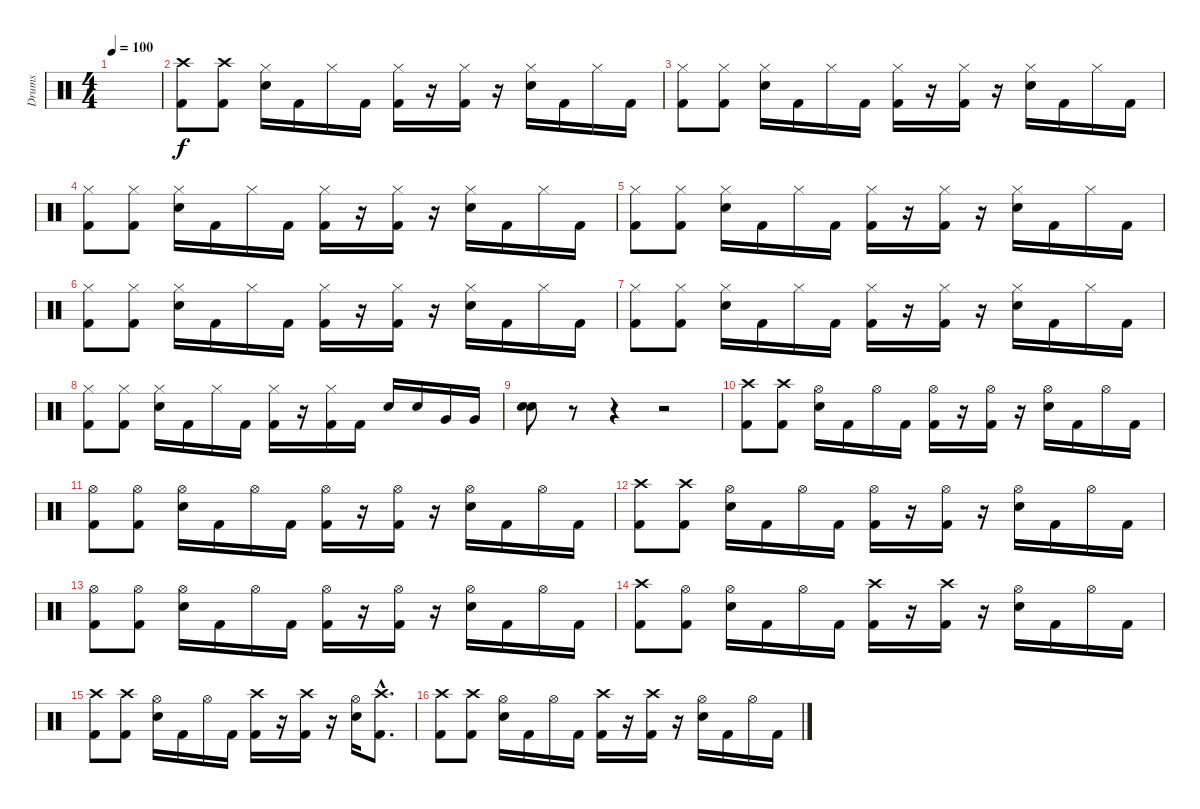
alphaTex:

\track ("Drums" "Drums") {instrument percussion}
\staff {score}
\articulation defaults
\ts (4 4)
\tempo 100
\clef neutral
\ks c
|
("Crash high (hit)" "Kick (hit) 2").8 ("Crash high (hit)" "Kick (hit) 2").8 ("Hi-Hat (closed)" "Snare (hit) 2").16 "Kick (hit) 2".16 "Hi-Hat (closed)".16 "Kick (hit) 2".16 ("Hi-Hat (closed)" "Kick (hit) 2").16 r.16 ("Hi-Hat (closed)" "Kick (hit) 2").16 r.16 ("Hi-Hat (closed)" "Snare (hit) 2").16 "Kick (hit) 2".16 "Hi-Hat (closed)".16 "Kick (hit) 2".16 |
("Hi-Hat (closed)" "Kick (hit) 2").8 ("Hi-Hat (closed)" "Kick (hit) 2").8 ("Hi-Hat (closed)" "Snare (hit) 2").16 "Kick (hit) 2".16 "Hi-Hat (closed)".16 "Kick (hit) 2".16 ("Hi-Hat (closed)" "Kick (hit) 2").16 r.16 ("Hi-Hat (closed)" "Kick (hit) 2").16 r.16 ("Hi-Hat (closed)" "Snare (hit) 2").16 "Kick (hit) 2".16 "Hi-Hat (closed)".16 "Kick (hit) 2".16 |
("Hi-Hat (closed)" "Kick (hit) 2").8 ("Hi-Hat (closed)" "Kick (hit) 2").8 ("Hi-Hat (closed)" "Snare (hit) 2").16 "Kick (hit) 2".16 "Hi-Hat (closed)".16 "Kick (hit) 2".16 ("Hi-Hat (closed)" "Kick (hit) 2").16 r.16 ("Hi-Hat (closed)" "Kick (hit) 2").16 r.16 ("Hi-Hat (closed)" "Snare (hit) 2").16 "Kick (hit) 2".16 "Hi-Hat (closed)".16 "Kick (hit) 2".16 |
("Hi-Hat (closed)" "Kick (hit) 2").8 ("Hi-Hat (closed)" "Kick (hit) 2").8 ("Hi-Hat (closed)" "Snare (hit) 2").16 "Kick (hit) 2".16 "Hi-Hat (closed)".16 "Kick (hit) 2".16 ("Hi-Hat (closed)" "Kick (hit) 2").16 r.16 ("Hi-Hat (closed)" "Kick (hit) 2").16 r.16 ("Hi-Hat (closed)" "Snare (hit) 2").16 "Kick (hit) 2".16 "Hi-Hat (closed)".16 "Kick (hit) 2".16 |
("Hi-Hat (closed)" "Kick (hit) 2").8 ("Hi-Hat (closed)" "Kick (hit) 2").8 ("Hi-Hat (closed)" "Snare (hit) 2").16 "Kick (hit) 2".16 "Hi-Hat (closed)".16 "Kick (hit) 2".16 ("Hi-Hat (closed)" "Kick (hit) 2").16 r.16 ("Hi-Hat (closed)" "Kick (hit) 2").16 r.16 ("Hi-Hat (closed)" "Snare (hit) 2").16 "Kick (hit) 2".16 "Hi-Hat (closed)".16 "Kick (hit) 2".16 |
("Hi-Hat (closed)" "Kick (hit) 2").8 ("Hi-Hat (closed)" "Kick (hit) 2").8 ("Hi-Hat (closed)" "Snare (hit) 2").16 "Kick (hit) 2".16 "Hi-Hat (closed)".16 "Kick (hit) 2".16 ("Hi-Hat (closed)" "Kick (hit) 2").16 r.16 ("Hi-Hat (closed)" "Kick (hit) 2").16 r.16 ("Hi-Hat (closed)" "Snare (hit) 2").16 "Kick (hit) 2".16 "Hi-Hat (closed)".16 "Kick (hit) 2".16 |
("Hi-Hat (closed)" "Kick (hit) 2").8 ("Hi-Hat (closed)" "Kick (hit) 2").8 ("Hi-Hat (closed)" "Snare (hit) 2").16 "Kick (hit) 2".16 "Hi-Hat (closed)".16 "Kick (hit) 2".16 ("Hi-Hat (closed)" "Kick (hit) 2").16 r.16 ("Hi-Hat (closed)" "Kick (hit) 2").16 "Kick (hit) 2".16 "Snare (hit) 2".16 "Snare (hit) 2".16 "Very Low Tom (hit)".16 "Very Low Tom (hit)".16 |
("Snare (hit) 2" "Snare (hit) 2").8 r.8 r.4 r.2 |
("Crash high (hit)" "Kick (hit) 2").8 ("Crash high (hit)" "Kick (hit) 2").8 ("Hi-Hat (open)" "Snare (hit) 2").16 "Kick (hit) 2".16 "Hi-Hat (open)".16 "Kick (hit) 2".16 ("Hi-Hat (open)" "Kick (hit) 2").16 r.16 ("Hi-Hat (open)" "Kick (hit) 2").16 r.16 ("Hi-Hat (open)" "Snare (hit) 2").16 "Kick (hit) 2".16 "Hi-Hat (open)".16 "Kick (hit) 2".16 |
("Hi-Hat (open)" "Kick (hit) 2").8 ("Hi-Hat (open)" "Kick (hit) 2").8 ("Hi-Hat (open)" "Snare (hit) 2").16 "Kick (hit) 2".16 "Hi-Hat (open)".16 "Kick (hit) 2".16 ("Hi-Hat (open)" "Kick (hit) 2").16 r.16 ("Hi-Hat (open)" "Kick (hit) 2").16 r.16 ("Hi-Hat (open)" "Snare (hit) 2").16 "Kick (hit) 2".16 "Hi-Hat (open)".16 "Kick (hit) 2".16 |
("Crash high (hit)" "Kick (hit) 2").8 ("Crash high (hit)" "Kick (hit) 2").8 ("Hi-Hat (open)" "Snare (hit) 2").16 "Kick (hit) 2".16 "Hi-Hat (open)".16 "Kick (hit) 2".16 ("Hi-Hat (open)" "Kick (hit) 2").16 r.16 ("Hi-Hat (open)" "Kick (hit) 2").16 r.16 ("Hi-Hat (open)" "Snare (hit) 2").16 "Kick (hit) 2".16 "Hi-Hat (open)".16 "Kick (hit) 2".16 |
("Hi-Hat (open)" "Kick (hit) 2").8 ("Hi-Hat (open)" "Kick (hit) 2").8 ("Hi-Hat (open)" "Snare (hit) 2").16 "Kick (hit) 2".16 "Hi-Hat (open)".16 "Kick (hit) 2".16 ("Hi-Hat (open)" "Kick (hit) 2").16 r.16 ("Hi-Hat (open)" "Kick (hit) 2").16 r.16 ("Hi-Hat (open)" "Snare (hit) 2").16 "Kick (hit) 2".16 "Hi-Hat (open)".16 "Kick (hit) 2".16 |
("Crash high (hit)" "Kick (hit) 2").8 ("Hi-Hat (open)" "Kick (hit) 2").8 ("Hi-Hat (open)" "Snare (hit) 2").16 "Kick (hit) 2".16 "Hi-Hat (open)".16 "Kick (hit) 2".16 ("Crash high (hit)" "Kick (hit) 2").16 r.16 ("Crash high (hit)" "Kick (hit) 2").16 r.16 ("Hi-Hat (open)" "Snare (hit) 2").16 "Kick (hit) 2".16 "Hi-Hat (open)".16 "Kick (hit) 2".16 |
("Crash high (hit)" "Kick (hit) 2").8 ("Crash high (hit)" "Kick (hit) 2").8 ("Hi-Hat (open)" "Snare (hit) 2").16 "Kick (hit) 2".16 "Hi-Hat (open)".16 "Kick (hit) 2".16 ("Crash high (hit)" "Kick (hit) 2").16 r.16 ("Crash high (hit)" "Kick (hit) 2").16 r.16 ("Hi-Hat (open)" "Snare (hit) 2").16 ("Crash high (hit)"{hac} "Kick (hit) 2"{hac}).8{d} |
("Crash high (hit)" "Kick (hit) 2").8 ("Crash high (hit)" "Kick (hit) 2").8 ("Hi-Hat (open)" "Snare (hit) 2").16 "Kick (hit) 2".16 "Hi-Hat (open)".16 "Kick (hit) 2".16 ("Crash high (hit)" "Kick (hit) 2").16 r.16 ("Crash high (hit)" "Kick (hit) 2").16 r.16 ("Hi-Hat (open)" "Snare (hit) 2").16 "Kick (hit) 2".16 "Hi-Hat (open)".16 "Kick (hit) 2".16
